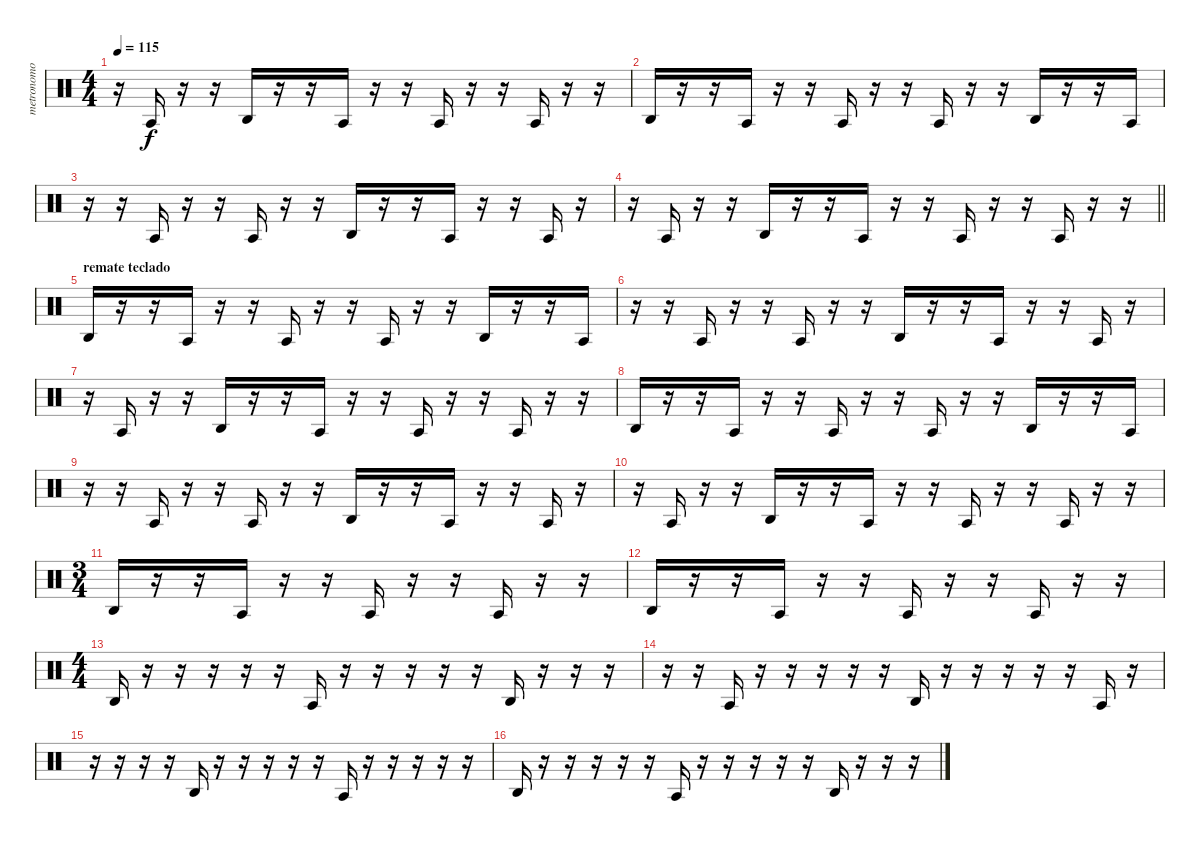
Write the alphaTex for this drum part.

\track ("metronomo" "metronomo") {mute instrument percussion}
\staff {score}
\articulation defaults
\ts (4 4)
\tempo 115
\clef neutral
\ks c
r.16{dy f} "Agogo tow (hit)".16 r.16 r.16 "Agogo high (hit)".16 r.16 r.16 "Agogo tow (hit)".16 r.16 r.16 "Agogo tow (hit)".16 r.16 r.16 "Agogo tow (hit)".16 r.16 r.16 |
"Agogo high (hit)".16 r.16 r.16 "Agogo tow (hit)".16 r.16 r.16 "Agogo tow (hit)".16 r.16 r.16 "Agogo tow (hit)".16 r.16 r.16 "Agogo high (hit)".16 r.16 r.16 "Agogo tow (hit)".16 |
r.16 r.16 "Agogo tow (hit)".16 r.16 r.16 "Agogo tow (hit)".16 r.16 r.16 "Agogo high (hit)".16 r.16 r.16 "Agogo tow (hit)".16 r.16 r.16 "Agogo tow (hit)".16 r.16 |
\barLineRight lightlight
r.16 "Agogo tow (hit)".16 r.16 r.16 "Agogo high (hit)".16 r.16 r.16 "Agogo tow (hit)".16 r.16 r.16 "Agogo tow (hit)".16 r.16 r.16 "Agogo tow (hit)".16 r.16 r.16 |
\section ("" "remate teclado")
"Agogo high (hit)".16 r.16 r.16 "Agogo tow (hit)".16 r.16 r.16 "Agogo tow (hit)".16 r.16 r.16 "Agogo tow (hit)".16 r.16 r.16 "Agogo high (hit)".16 r.16 r.16 "Agogo tow (hit)".16 |
r.16 r.16 "Agogo tow (hit)".16 r.16 r.16 "Agogo tow (hit)".16 r.16 r.16 "Agogo high (hit)".16 r.16 r.16 "Agogo tow (hit)".16 r.16 r.16 "Agogo tow (hit)".16 r.16 |
r.16 "Agogo tow (hit)".16 r.16 r.16 "Agogo high (hit)".16 r.16 r.16 "Agogo tow (hit)".16 r.16 r.16 "Agogo tow (hit)".16 r.16 r.16 "Agogo tow (hit)".16 r.16 r.16 |
"Agogo high (hit)".16 r.16 r.16 "Agogo tow (hit)".16 r.16 r.16 "Agogo tow (hit)".16 r.16 r.16 "Agogo tow (hit)".16 r.16 r.16 "Agogo high (hit)".16 r.16 r.16 "Agogo tow (hit)".16 |
r.16 r.16 "Agogo tow (hit)".16 r.16 r.16 "Agogo tow (hit)".16 r.16 r.16 "Agogo high (hit)".16 r.16 r.16 "Agogo tow (hit)".16 r.16 r.16 "Agogo tow (hit)".16 r.16 |
r.16 "Agogo tow (hit)".16 r.16 r.16 "Agogo high (hit)".16 r.16 r.16 "Agogo tow (hit)".16 r.16 r.16 "Agogo tow (hit)".16 r.16 r.16 "Agogo tow (hit)".16 r.16 r.16 |
\ts (3 4)
"Agogo high (hit)".16 r.16 r.16 "Agogo tow (hit)".16 r.16 r.16 "Agogo tow (hit)".16 r.16 r.16 "Agogo tow (hit)".16 r.16 r.16 |
"Agogo high (hit)".16 r.16 r.16 "Agogo tow (hit)".16 r.16 r.16 "Agogo tow (hit)".16 r.16 r.16 "Agogo tow (hit)".16 r.16 r.16 |
\ts (4 4)
"Agogo high (hit)".16 r.16 r.16 r.16 r.16 r.16 "Agogo tow (hit)".16 r.16 r.16 r.16 r.16 r.16 "Agogo high (hit)".16 r.16 r.16 r.16 |
r.16 r.16 "Agogo tow (hit)".16 r.16 r.16 r.16 r.16 r.16 "Agogo high (hit)".16 r.16 r.16 r.16 r.16 r.16 "Agogo tow (hit)".16 r.16 |
r.16 r.16 r.16 r.16 "Agogo high (hit)".16 r.16 r.16 r.16 r.16 r.16 "Agogo tow (hit)".16 r.16 r.16 r.16 r.16 r.16 |
"Agogo high (hit)".16 r.16 r.16 r.16 r.16 r.16 "Agogo tow (hit)".16 r.16 r.16 r.16 r.16 r.16 "Agogo high (hit)".16 r.16 r.16 r.16
